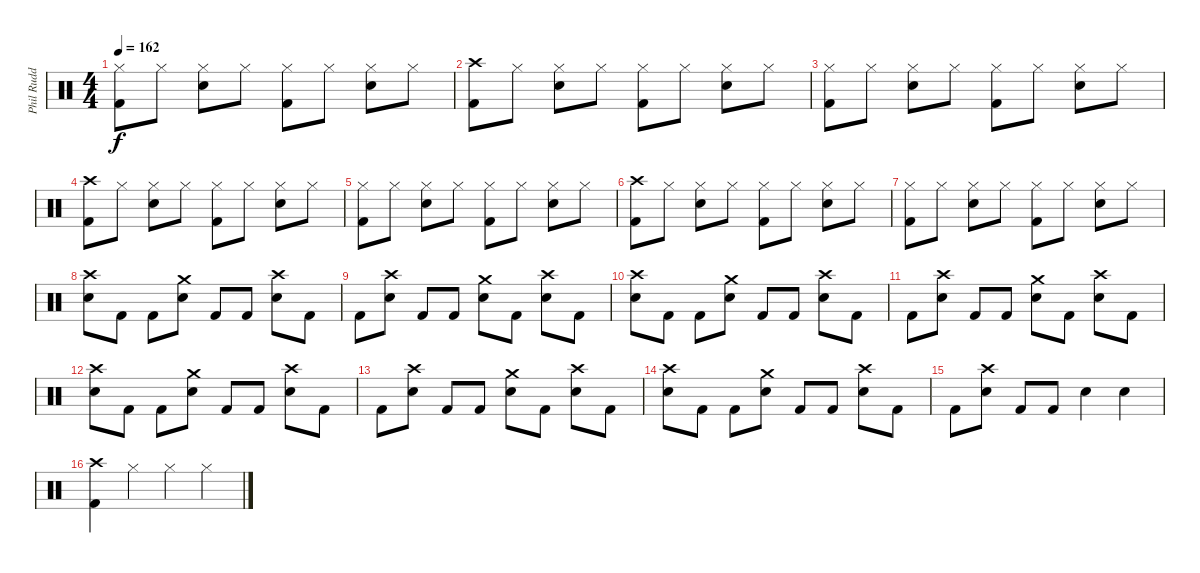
\track ("Phil Rudd" "Phil Rudd") {instrument percussion}
\staff {score}
\articulation defaults
\ts (4 4)
\tempo 162
\clef neutral
\ks c
("Hi-Hat (closed)" "Kick (hit) 2").8{dy f} "Hi-Hat (closed)".8 ("Hi-Hat (closed)" "Snare (hit) 2").8 "Hi-Hat (closed)".8 ("Hi-Hat (closed)" "Kick (hit) 2").8 "Hi-Hat (closed)".8 ("Hi-Hat (closed)" "Snare (hit) 2").8 "Hi-Hat (closed)".8 |
("Crash high (hit)" "Kick (hit) 2").8 "Hi-Hat (closed)".8 ("Hi-Hat (closed)" "Snare (hit) 2").8 "Hi-Hat (closed)".8 ("Hi-Hat (closed)" "Kick (hit) 2").8 "Hi-Hat (closed)".8 ("Hi-Hat (closed)" "Snare (hit) 2").8 "Hi-Hat (closed)".8 |
("Hi-Hat (closed)" "Kick (hit) 2").8 "Hi-Hat (closed)".8 ("Hi-Hat (closed)" "Snare (hit) 2").8 "Hi-Hat (closed)".8 ("Hi-Hat (closed)" "Kick (hit) 2").8 "Hi-Hat (closed)".8 ("Hi-Hat (closed)" "Snare (hit) 2").8 "Hi-Hat (closed)".8 |
("Crash high (hit)" "Kick (hit) 2").8 "Hi-Hat (closed)".8 ("Hi-Hat (closed)" "Snare (hit) 2").8 "Hi-Hat (closed)".8 ("Hi-Hat (closed)" "Kick (hit) 2").8 "Hi-Hat (closed)".8 ("Hi-Hat (closed)" "Snare (hit) 2").8 "Hi-Hat (closed)".8 |
("Hi-Hat (closed)" "Kick (hit) 2").8 "Hi-Hat (closed)".8 ("Hi-Hat (closed)" "Snare (hit) 2").8 "Hi-Hat (closed)".8 ("Hi-Hat (closed)" "Kick (hit) 2").8 "Hi-Hat (closed)".8 ("Hi-Hat (closed)" "Snare (hit) 2").8 "Hi-Hat (closed)".8 |
("Crash high (hit)" "Kick (hit) 2").8 "Hi-Hat (closed)".8 ("Hi-Hat (closed)" "Snare (hit) 2").8 "Hi-Hat (closed)".8 ("Hi-Hat (closed)" "Kick (hit) 2").8 "Hi-Hat (closed)".8 ("Hi-Hat (closed)" "Snare (hit) 2").8 "Hi-Hat (closed)".8 |
("Hi-Hat (closed)" "Kick (hit) 2").8 "Hi-Hat (closed)".8 ("Hi-Hat (closed)" "Snare (hit) 2").8 "Hi-Hat (closed)".8 ("Hi-Hat (closed)" "Kick (hit) 2").8 "Hi-Hat (closed)".8 ("Hi-Hat (closed)" "Snare (hit) 2").8 "Hi-Hat (closed)".8 |
("Crash high (hit)" "Snare (hit) 2").8 "Kick (hit) 2".8 "Kick (hit) 2".8 ("Crash medium (hit)" "Snare (hit) 2").8 "Kick (hit) 2".8 "Kick (hit) 2".8 ("Crash high (hit)" "Snare (hit) 2").8 "Kick (hit) 2".8 |
"Kick (hit) 2".8 ("Crash high (hit)" "Snare (hit) 2").8 "Kick (hit) 2".8 "Kick (hit) 2".8 ("Crash medium (hit)" "Snare (hit) 2").8 "Kick (hit) 2".8 ("Crash high (hit)" "Snare (hit) 2").8 "Kick (hit) 2".8 |
("Crash high (hit)" "Snare (hit) 2").8 "Kick (hit) 2".8 "Kick (hit) 2".8 ("Crash medium (hit)" "Snare (hit) 2").8 "Kick (hit) 2".8 "Kick (hit) 2".8 ("Crash high (hit)" "Snare (hit) 2").8 "Kick (hit) 2".8 |
"Kick (hit) 2".8 ("Crash high (hit)" "Snare (hit) 2").8 "Kick (hit) 2".8 "Kick (hit) 2".8 ("Crash medium (hit)" "Snare (hit) 2").8 "Kick (hit) 2".8 ("Crash high (hit)" "Snare (hit) 2").8 "Kick (hit) 2".8 |
("Crash high (hit)" "Snare (hit) 2").8 "Kick (hit) 2".8 "Kick (hit) 2".8 ("Crash medium (hit)" "Snare (hit) 2").8 "Kick (hit) 2".8 "Kick (hit) 2".8 ("Crash high (hit)" "Snare (hit) 2").8 "Kick (hit) 2".8 |
"Kick (hit) 2".8 ("Crash high (hit)" "Snare (hit) 2").8 "Kick (hit) 2".8 "Kick (hit) 2".8 ("Crash medium (hit)" "Snare (hit) 2").8 "Kick (hit) 2".8 ("Crash high (hit)" "Snare (hit) 2").8 "Kick (hit) 2".8 |
("Crash high (hit)" "Snare (hit) 2").8 "Kick (hit) 2".8 "Kick (hit) 2".8 ("Crash medium (hit)" "Snare (hit) 2").8 "Kick (hit) 2".8 "Kick (hit) 2".8 ("Crash high (hit)" "Snare (hit) 2").8 "Kick (hit) 2".8 |
"Kick (hit) 2".8 ("Crash high (hit)" "Snare (hit) 2").8 "Kick (hit) 2".8 "Kick (hit) 2".8 "Snare (hit) 2".4 "Snare (hit) 2".4 |
("Crash high (hit)" "Kick (hit) 2").4 "Hi-Hat (closed)".4 "Hi-Hat (closed)".4 "Hi-Hat (closed)".4
